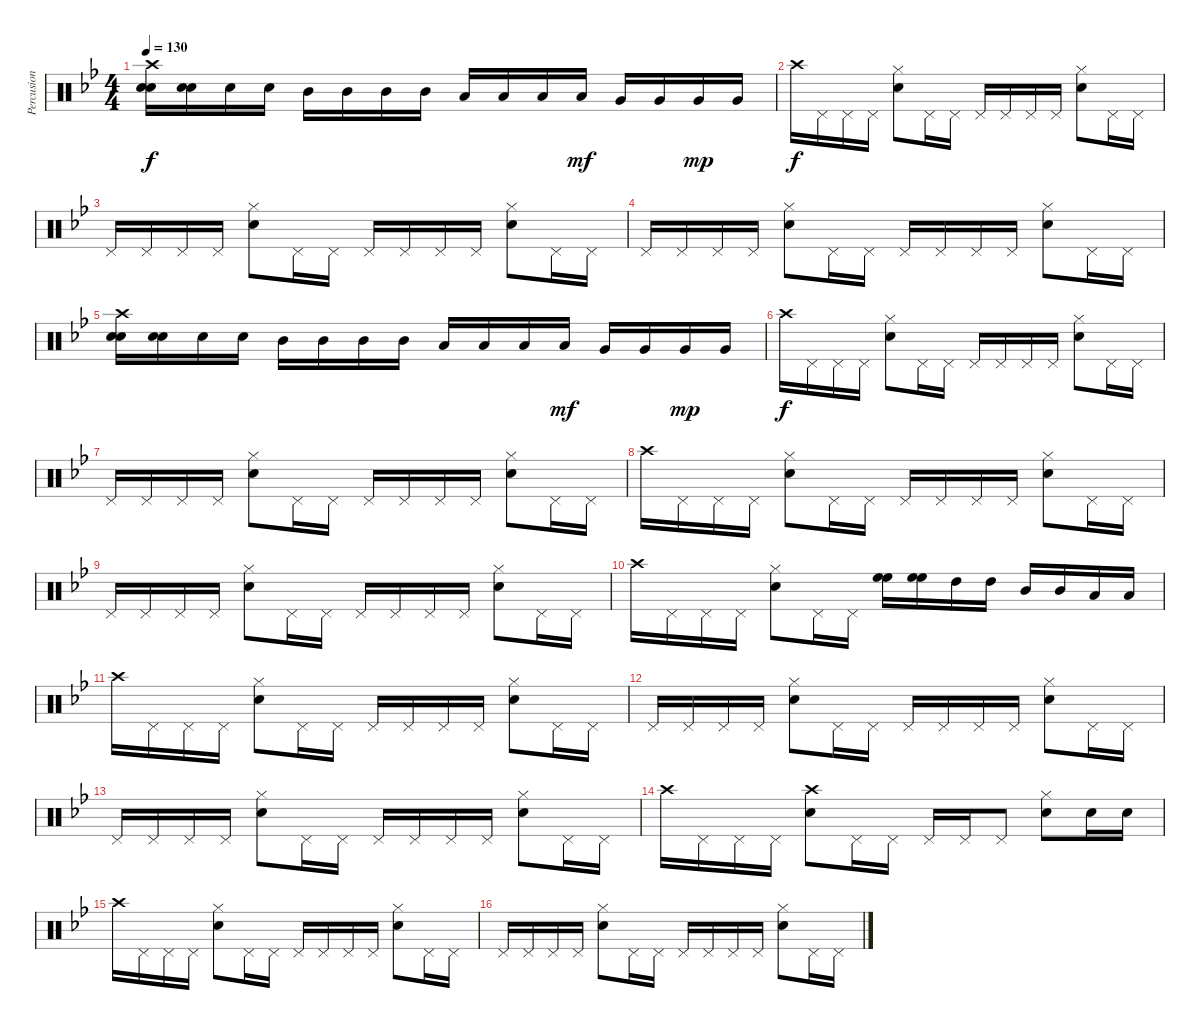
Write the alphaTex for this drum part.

\track ("Percusion I" "Percusion ") {instrument percussion}
\staff {score}
\articulation defaults
\ts (4 4)
\tempo 130
\clef neutral
\ks gminor
("Crash high (hit)" "Snare (hit) 2" "Snare (hit) 2").16{dy f} ("Snare (hit) 2" "Snare (hit) 2").16 "Snare (hit) 2".16 "Snare (hit) 2".16 "Mid Tom (hit)".16 "Mid Tom (hit)".16 "Mid Tom (hit)".16 "Mid Tom (hit)".16 "Low Tom (hit)".16 "Low Tom (hit)".16 "Low Tom (hit)".16 "Low Tom (hit)".16{dy mf} "Very Low Tom (hit)".16 "Very Low Tom (hit)".16 "Very Low Tom (hit)".16{dy mp} "Very Low Tom (hit)".16 |
"Crash high (hit)".16{dy f} "Pedal Hi-Hat (hit)".16 "Pedal Hi-Hat (hit)".16 "Pedal Hi-Hat (hit)".16 ("Snare (hit) 2" "Hi-Hat (closed)").8 "Pedal Hi-Hat (hit)".16 "Pedal Hi-Hat (hit)".16 "Pedal Hi-Hat (hit)".16 "Pedal Hi-Hat (hit)".16 "Pedal Hi-Hat (hit)".16 "Pedal Hi-Hat (hit)".16 ("Hi-Hat (closed)" "Snare (hit) 2").8 "Pedal Hi-Hat (hit)".16 "Pedal Hi-Hat (hit)".16 |
"Pedal Hi-Hat (hit)".16 "Pedal Hi-Hat (hit)".16 "Pedal Hi-Hat (hit)".16 "Pedal Hi-Hat (hit)".16 ("Hi-Hat (closed)" "Snare (hit) 2").8 "Pedal Hi-Hat (hit)".16 "Pedal Hi-Hat (hit)".16 "Pedal Hi-Hat (hit)".16 "Pedal Hi-Hat (hit)".16 "Pedal Hi-Hat (hit)".16 "Pedal Hi-Hat (hit)".16 ("Hi-Hat (closed)" "Snare (hit) 2").8 "Pedal Hi-Hat (hit)".16 "Pedal Hi-Hat (hit)".16 |
"Pedal Hi-Hat (hit)".16 "Pedal Hi-Hat (hit)".16 "Pedal Hi-Hat (hit)".16 "Pedal Hi-Hat (hit)".16 ("Hi-Hat (closed)" "Snare (hit) 2").8 "Pedal Hi-Hat (hit)".16 "Pedal Hi-Hat (hit)".16 "Pedal Hi-Hat (hit)".16 "Pedal Hi-Hat (hit)".16 "Pedal Hi-Hat (hit)".16 "Pedal Hi-Hat (hit)".16 ("Hi-Hat (closed)" "Snare (hit) 2").8 "Pedal Hi-Hat (hit)".16 "Pedal Hi-Hat (hit)".16 |
("Crash high (hit)" "Snare (hit) 2" "Snare (hit) 2").16 ("Snare (hit) 2" "Snare (hit) 2").16 "Snare (hit) 2".16 "Snare (hit) 2".16 "Mid Tom (hit)".16 "Mid Tom (hit)".16 "Mid Tom (hit)".16 "Mid Tom (hit)".16 "Low Tom (hit)".16 "Low Tom (hit)".16 "Low Tom (hit)".16 "Low Tom (hit)".16{dy mf} "Very Low Tom (hit)".16 "Very Low Tom (hit)".16 "Very Low Tom (hit)".16{dy mp} "Very Low Tom (hit)".16 |
"Crash high (hit)".16{dy f} "Pedal Hi-Hat (hit)".16 "Pedal Hi-Hat (hit)".16 "Pedal Hi-Hat (hit)".16 ("Hi-Hat (closed)" "Snare (hit) 2").8 "Pedal Hi-Hat (hit)".16 "Pedal Hi-Hat (hit)".16 "Pedal Hi-Hat (hit)".16 "Pedal Hi-Hat (hit)".16 "Pedal Hi-Hat (hit)".16 "Pedal Hi-Hat (hit)".16 ("Hi-Hat (closed)" "Snare (hit) 2").8 "Pedal Hi-Hat (hit)".16 "Pedal Hi-Hat (hit)".16 |
"Pedal Hi-Hat (hit)".16 "Pedal Hi-Hat (hit)".16 "Pedal Hi-Hat (hit)".16 "Pedal Hi-Hat (hit)".16 ("Snare (hit) 2" "Hi-Hat (closed)").8 "Pedal Hi-Hat (hit)".16 "Pedal Hi-Hat (hit)".16 "Pedal Hi-Hat (hit)".16 "Pedal Hi-Hat (hit)".16 "Pedal Hi-Hat (hit)".16 "Pedal Hi-Hat (hit)".16 ("Hi-Hat (closed)" "Snare (hit) 2").8 "Pedal Hi-Hat (hit)".16 "Pedal Hi-Hat (hit)".16 |
"Crash high (hit)".16 "Pedal Hi-Hat (hit)".16 "Pedal Hi-Hat (hit)".16 "Pedal Hi-Hat (hit)".16 ("Hi-Hat (closed)" "Snare (hit) 2").8 "Pedal Hi-Hat (hit)".16 "Pedal Hi-Hat (hit)".16 "Pedal Hi-Hat (hit)".16 "Pedal Hi-Hat (hit)".16 "Pedal Hi-Hat (hit)".16 "Pedal Hi-Hat (hit)".16 ("Snare (hit) 2" "Hi-Hat (closed)").8 "Pedal Hi-Hat (hit)".16 "Pedal Hi-Hat (hit)".16 |
"Pedal Hi-Hat (hit)".16 "Pedal Hi-Hat (hit)".16 "Pedal Hi-Hat (hit)".16 "Pedal Hi-Hat (hit)".16 ("Snare (hit) 2" "Hi-Hat (closed)").8 "Pedal Hi-Hat (hit)".16 "Pedal Hi-Hat (hit)".16 "Pedal Hi-Hat (hit)".16 "Pedal Hi-Hat (hit)".16 "Pedal Hi-Hat (hit)".16 "Pedal Hi-Hat (hit)".16 ("Snare (hit) 2" "Hi-Hat (closed)").8 "Pedal Hi-Hat (hit)".16 "Pedal Hi-Hat (hit)".16 |
"Crash high (hit)".16 "Pedal Hi-Hat (hit)".16 "Pedal Hi-Hat (hit)".16 "Pedal Hi-Hat (hit)".16 ("Snare (hit) 2" "Hi-Hat (closed)").8 "Pedal Hi-Hat (hit)".16 "Pedal Hi-Hat (hit)".16 ("High Floor Tom (hit)" "High Floor Tom (hit)").16 ("High Floor Tom (hit)" "High Floor Tom (hit)").16 "High Tom (hit)".16 "High Tom (hit)".16 "Mid Tom (hit)".16 "Mid Tom (hit)".16 "Low Tom (hit)".16 "Low Tom (hit)".16 |
"Crash high (hit)".16 "Pedal Hi-Hat (hit)".16 "Pedal Hi-Hat (hit)".16 "Pedal Hi-Hat (hit)".16 ("Snare (hit) 2" "Hi-Hat (closed)").8 "Pedal Hi-Hat (hit)".16 "Pedal Hi-Hat (hit)".16 "Pedal Hi-Hat (hit)".16 "Pedal Hi-Hat (hit)".16 "Pedal Hi-Hat (hit)".16 "Pedal Hi-Hat (hit)".16 ("Snare (hit) 2" "Hi-Hat (closed)").8 "Pedal Hi-Hat (hit)".16 "Pedal Hi-Hat (hit)".16 |
"Pedal Hi-Hat (hit)".16 "Pedal Hi-Hat (hit)".16 "Pedal Hi-Hat (hit)".16 "Pedal Hi-Hat (hit)".16 ("Snare (hit) 2" "Hi-Hat (closed)").8 "Pedal Hi-Hat (hit)".16 "Pedal Hi-Hat (hit)".16 "Pedal Hi-Hat (hit)".16 "Pedal Hi-Hat (hit)".16 "Pedal Hi-Hat (hit)".16 "Pedal Hi-Hat (hit)".16 ("Snare (hit) 2" "Hi-Hat (closed)").8 "Pedal Hi-Hat (hit)".16 "Pedal Hi-Hat (hit)".16 |
"Pedal Hi-Hat (hit)".16 "Pedal Hi-Hat (hit)".16 "Pedal Hi-Hat (hit)".16 "Pedal Hi-Hat (hit)".16 ("Hi-Hat (closed)" "Snare (hit) 2").8 "Pedal Hi-Hat (hit)".16 "Pedal Hi-Hat (hit)".16 "Pedal Hi-Hat (hit)".16 "Pedal Hi-Hat (hit)".16 "Pedal Hi-Hat (hit)".16 "Pedal Hi-Hat (hit)".16 ("Snare (hit) 2" "Hi-Hat (closed)").8 "Pedal Hi-Hat (hit)".16 "Pedal Hi-Hat (hit)".16 |
"Crash high (hit)".16 "Pedal Hi-Hat (hit)".16 "Pedal Hi-Hat (hit)".16 "Pedal Hi-Hat (hit)".16 ("Snare (hit) 2" "Crash high (hit)").8 "Pedal Hi-Hat (hit)".16 "Pedal Hi-Hat (hit)".16 "Pedal Hi-Hat (hit)".16 "Pedal Hi-Hat (hit)".16 "Pedal Hi-Hat (hit)".8 ("Snare (hit) 2" "Hi-Hat (closed)").8 "Snare (hit) 2".16 "Snare (hit) 2".16 |
"Crash high (hit)".16 "Pedal Hi-Hat (hit)".16 "Pedal Hi-Hat (hit)".16 "Pedal Hi-Hat (hit)".16 ("Snare (hit) 2" "Hi-Hat (closed)").8 "Pedal Hi-Hat (hit)".16 "Pedal Hi-Hat (hit)".16 "Pedal Hi-Hat (hit)".16 "Pedal Hi-Hat (hit)".16 "Pedal Hi-Hat (hit)".16 "Pedal Hi-Hat (hit)".16 ("Snare (hit) 2" "Hi-Hat (closed)").8 "Pedal Hi-Hat (hit)".16 "Pedal Hi-Hat (hit)".16 |
"Pedal Hi-Hat (hit)".16 "Pedal Hi-Hat (hit)".16 "Pedal Hi-Hat (hit)".16 "Pedal Hi-Hat (hit)".16 ("Snare (hit) 2" "Hi-Hat (closed)").8 "Pedal Hi-Hat (hit)".16 "Pedal Hi-Hat (hit)".16 "Pedal Hi-Hat (hit)".16 "Pedal Hi-Hat (hit)".16 "Pedal Hi-Hat (hit)".16 "Pedal Hi-Hat (hit)".16 ("Snare (hit) 2" "Hi-Hat (closed)").8 "Pedal Hi-Hat (hit)".16 "Pedal Hi-Hat (hit)".16
